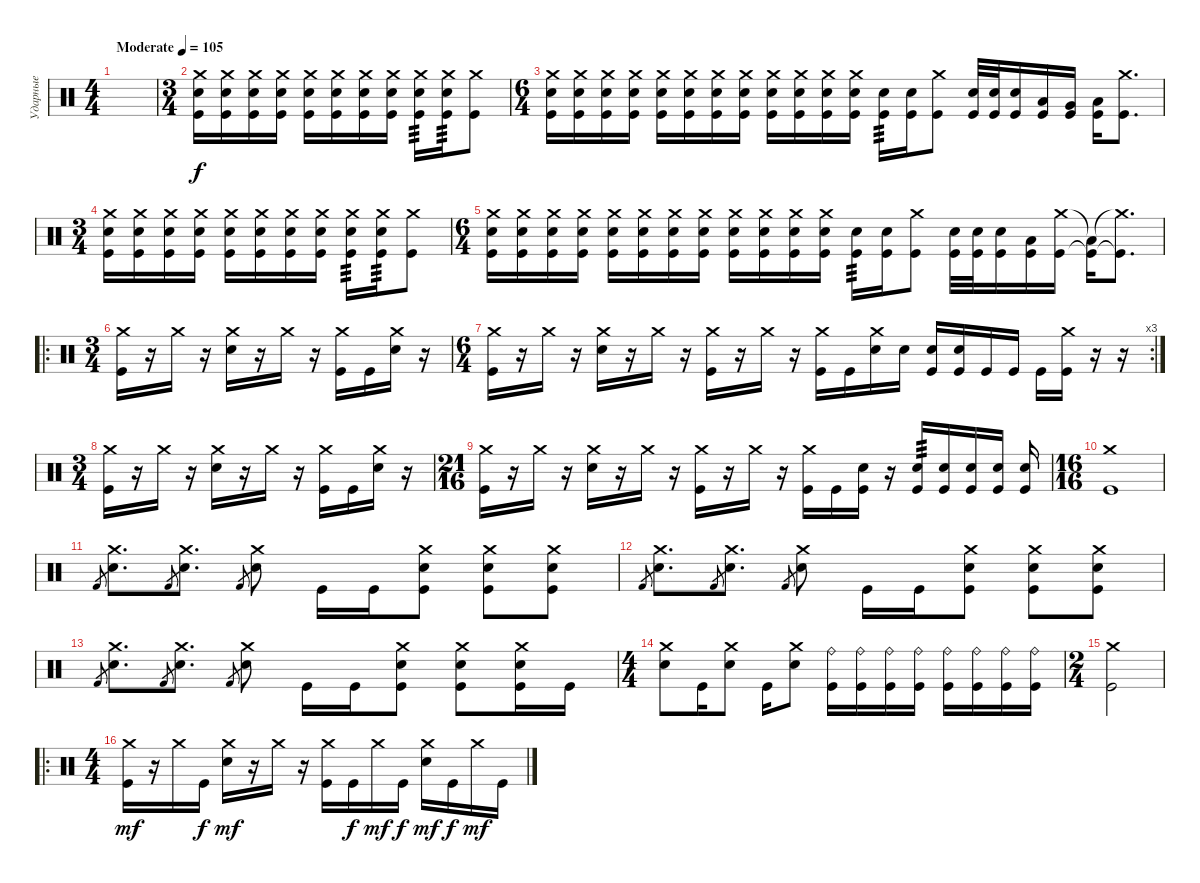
\track ("Ударные" "Ударные") {instrument percussion}
\staff {score}
\articulation defaults
\ts (4 4)
\tempo (105 "Moderate")
\clef neutral
\ks c
|
\ts (3 4)
("Crash medium (hit)" "Electric Snare (hit)" "Kick (hit)").16 ("Crash medium (hit)" "Electric Snare (hit)" "Kick (hit)").16 ("Crash medium (hit)" "Electric Snare (hit)" "Kick (hit)").16 ("Crash medium (hit)" "Electric Snare (hit)" "Kick (hit)").16 ("Crash medium (hit)" "Electric Snare (hit)" "Kick (hit)").16 ("Crash medium (hit)" "Electric Snare (hit)" "Kick (hit)").16 ("Crash medium (hit)" "Electric Snare (hit)" "Kick (hit)").16 ("Crash medium (hit)" "Electric Snare (hit)" "Kick (hit)").16 ("Crash medium (hit)" "Electric Snare (hit)" "Kick (hit)").16{tp 3} ("Crash medium (hit)" "Electric Snare (hit)" "Kick (hit)").16{tp 3} ("Crash medium (hit)" "Kick (hit)").8 |
\ts (6 4)
("Crash medium (hit)" "Electric Snare (hit)" "Kick (hit)").16 ("Crash medium (hit)" "Electric Snare (hit)" "Kick (hit)").16 ("Crash medium (hit)" "Electric Snare (hit)" "Kick (hit)").16 ("Crash medium (hit)" "Electric Snare (hit)" "Kick (hit)").16 ("Crash medium (hit)" "Electric Snare (hit)" "Kick (hit)").16 ("Crash medium (hit)" "Electric Snare (hit)" "Kick (hit)").16 ("Crash medium (hit)" "Electric Snare (hit)" "Kick (hit)").16 ("Crash medium (hit)" "Electric Snare (hit)" "Kick (hit)").16 ("Crash medium (hit)" "Electric Snare (hit)" "Kick (hit)").16 ("Crash medium (hit)" "Electric Snare (hit)" "Kick (hit)").16 ("Crash medium (hit)" "Electric Snare (hit)" "Kick (hit)").16 ("Crash medium (hit)" "Electric Snare (hit)" "Kick (hit)").16 ("Electric Snare (hit)" "Kick (hit)").16{tp 3} ("Electric Snare (hit)" "Kick (hit)").16 ("Crash medium (hit)" "Kick (hit)").8 ("Electric Snare (hit)" "Kick (hit)").32 ("Electric Snare (hit)" "Kick (hit)").32 ("Electric Snare (hit)" "Kick (hit)").16 ("Low Tom (hit)" "Kick (hit)").16 ("Very Low Tom (hit)" "Kick (hit)").16 ("Low Floor Tom (hit)" "Kick (hit)").16 ("Crash medium (hit)" "Kick (hit)").8{d} |
\ts (3 4)
("Crash medium (hit)" "Electric Snare (hit)" "Kick (hit)").16 ("Crash medium (hit)" "Electric Snare (hit)" "Kick (hit)").16 ("Crash medium (hit)" "Electric Snare (hit)" "Kick (hit)").16 ("Crash medium (hit)" "Electric Snare (hit)" "Kick (hit)").16 ("Crash medium (hit)" "Electric Snare (hit)" "Kick (hit)").16 ("Crash medium (hit)" "Electric Snare (hit)" "Kick (hit)").16 ("Crash medium (hit)" "Electric Snare (hit)" "Kick (hit)").16 ("Crash medium (hit)" "Electric Snare (hit)" "Kick (hit)").16 ("Crash medium (hit)" "Electric Snare (hit)" "Kick (hit)").16{tp 3} ("Crash medium (hit)" "Electric Snare (hit)" "Kick (hit)").16{tp 3} ("Crash medium (hit)" "Kick (hit)").8 |
\ts (6 4)
("Crash medium (hit)" "Electric Snare (hit)" "Kick (hit)").16 ("Crash medium (hit)" "Electric Snare (hit)" "Kick (hit)").16 ("Crash medium (hit)" "Electric Snare (hit)" "Kick (hit)").16 ("Crash medium (hit)" "Electric Snare (hit)" "Kick (hit)").16 ("Crash medium (hit)" "Electric Snare (hit)" "Kick (hit)").16 ("Crash medium (hit)" "Electric Snare (hit)" "Kick (hit)").16 ("Crash medium (hit)" "Electric Snare (hit)" "Kick (hit)").16 ("Crash medium (hit)" "Electric Snare (hit)" "Kick (hit)").16 ("Crash medium (hit)" "Electric Snare (hit)" "Kick (hit)").16 ("Crash medium (hit)" "Electric Snare (hit)" "Kick (hit)").16 ("Crash medium (hit)" "Electric Snare (hit)" "Kick (hit)").16 ("Crash medium (hit)" "Electric Snare (hit)" "Kick (hit)").16 ("Electric Snare (hit)" "Kick (hit)").16{tp 3} ("Electric Snare (hit)" "Kick (hit)").16 ("Crash medium (hit)" "Kick (hit)").8 ("Electric Snare (hit)" "Kick (hit)").32 ("Electric Snare (hit)" "Kick (hit)").32 ("Electric Snare (hit)" "Kick (hit)").16 ("Low Tom (hit)" "Kick (hit)").16 ("Crash medium (hit)" "Kick (hit)").16 ("Low Floor Tom (hit)"{t} "Kick (hit)"{t}).16 ("Crash medium (hit)"{t} "Kick (hit)"{t}).8{d} |
\ro
\ts (3 4)
("Crash medium (hit)" "Kick (hit)").16 r.16 "Crash medium (hit)".16 r.16 ("Crash medium (hit)" "Electric Snare (hit)").16 r.16 "Crash medium (hit)".16 r.16 ("Crash medium (hit)" "Kick (hit)").16 "Kick (hit)".16 ("Crash medium (hit)" "Electric Snare (hit)").16 r.16 |
\rc 3
\ts (6 4)
("Crash medium (hit)" "Kick (hit)").16 r.16 "Crash medium (hit)".16 r.16 ("Crash medium (hit)" "Electric Snare (hit)").16 r.16 "Crash medium (hit)".16 r.16 ("Crash medium (hit)" "Kick (hit)").16 r.16 "Crash medium (hit)".16 r.16 ("Crash medium (hit)" "Kick (hit)").16 "Kick (hit)".16 ("Crash medium (hit)" "Electric Snare (hit)").16 "Electric Snare (hit)".16 ("Electric Snare (hit)" "Kick (hit)").16 ("Electric Snare (hit)" "Kick (hit)").16 "Kick (hit)".16 "Kick (hit)".16 "Kick (hit)".16 ("Crash medium (hit)" "Kick (hit)").16 r.16 r.16 |
\ts (3 4)
("Crash medium (hit)" "Kick (hit)").16 r.16 "Crash medium (hit)".16 r.16 ("Crash medium (hit)" "Electric Snare (hit)").16 r.16 "Crash medium (hit)".16 r.16 ("Crash medium (hit)" "Kick (hit)").16 "Kick (hit)".16 ("Crash medium (hit)" "Electric Snare (hit)").16 r.16 |
\ts (21 16)
("Crash medium (hit)" "Kick (hit)").16 r.16 "Crash medium (hit)".16 r.16 ("Crash medium (hit)" "Electric Snare (hit)").16 r.16 "Crash medium (hit)".16 r.16 ("Crash medium (hit)" "Kick (hit)").16 r.16 "Crash medium (hit)".16 r.16 ("Crash medium (hit)" "Kick (hit)").16 "Kick (hit)".16 ("Electric Snare (hit)" "Kick (hit)").16 r.16 ("Electric Snare (hit)" "Kick (hit)").16{tp 3} ("Electric Snare (hit)" "Kick (hit)").16 ("Electric Snare (hit)" "Kick (hit)").16 ("Electric Snare (hit)" "Kick (hit)").16 ("Electric Snare (hit)" "Kick (hit)").16 |
\ts (16 16)
("Crash medium (hit)" "Kick (hit)").1 |
"Kick (hit) 2".8{gr} ("Crash medium (hit)" "Electric Snare (hit)").8{d} "Kick (hit) 2".8{gr} ("Crash medium (hit)" "Electric Snare (hit)").8{d} "Kick (hit) 2".8{gr} ("Crash medium (hit)" "Electric Snare (hit)").8 "Kick (hit)".16 "Kick (hit)".16 ("Crash medium (hit)" "Electric Snare (hit)" "Kick (hit)").8 ("Crash medium (hit)" "Electric Snare (hit)" "Kick (hit)").8 ("Crash medium (hit)" "Electric Snare (hit)" "Kick (hit)").8 |
"Kick (hit) 2".8{gr} ("Crash medium (hit)" "Electric Snare (hit)").8{d} "Kick (hit) 2".8{gr} ("Crash medium (hit)" "Electric Snare (hit)").8{d} "Kick (hit) 2".8{gr} ("Crash medium (hit)" "Electric Snare (hit)").8 "Kick (hit)".16 "Kick (hit)".16 ("Crash medium (hit)" "Electric Snare (hit)" "Kick (hit)").8 ("Crash medium (hit)" "Electric Snare (hit)" "Kick (hit)").8 ("Crash medium (hit)" "Electric Snare (hit)" "Kick (hit)").8 |
"Kick (hit) 2".8{gr} ("Crash medium (hit)" "Electric Snare (hit)").8{d} "Kick (hit) 2".8{gr} ("Crash medium (hit)" "Electric Snare (hit)").8{d} "Kick (hit) 2".8{gr} ("Crash medium (hit)" "Electric Snare (hit)").8 "Kick (hit)".16 "Kick (hit)".16 ("Crash medium (hit)" "Electric Snare (hit)" "Kick (hit)").8 ("Crash medium (hit)" "Electric Snare (hit)" "Kick (hit)").8 ("Crash medium (hit)" "Electric Snare (hit)" "Kick (hit)").16 "Kick (hit)".16 |
\ts (4 4)
("Crash medium (hit)" "Electric Snare (hit)").8 "Kick (hit)".16 ("Crash medium (hit)" "Electric Snare (hit)").8 "Kick (hit)".16 ("Crash medium (hit)" "Electric Snare (hit)").8 ("Ride (bell)" "Kick (hit)").16 ("Ride (bell)" "Kick (hit)").16 ("Ride (bell)" "Kick (hit)").16 ("Ride (bell)" "Kick (hit)").16 ("Ride (bell)" "Kick (hit)").16 ("Ride (bell)" "Kick (hit)").16 ("Ride (bell)" "Kick (hit)").16 ("Ride (bell)" "Kick (hit)").16 |
\ts (2 4)
("Crash medium (hit)" "Kick (hit)").2 |
\ro
\ts (4 4)
("Crash medium (hit)" "Kick (hit)").16{dy mf} r.16 "Crash medium (hit)".16 "Kick (hit)".16{dy f} ("Crash medium (hit)" "Electric Snare (hit)").16{dy mf} r.16 "Crash medium (hit)".16 r.16 ("Crash medium (hit)" "Kick (hit)").16 "Kick (hit)".16{dy f} "Crash medium (hit)".16{dy mf} "Kick (hit)".16{dy f} ("Crash medium (hit)" "Electric Snare (hit)").16{dy mf} "Kick (hit)".16{dy f} "Crash medium (hit)".16{dy mf} "Kick (hit)".16
